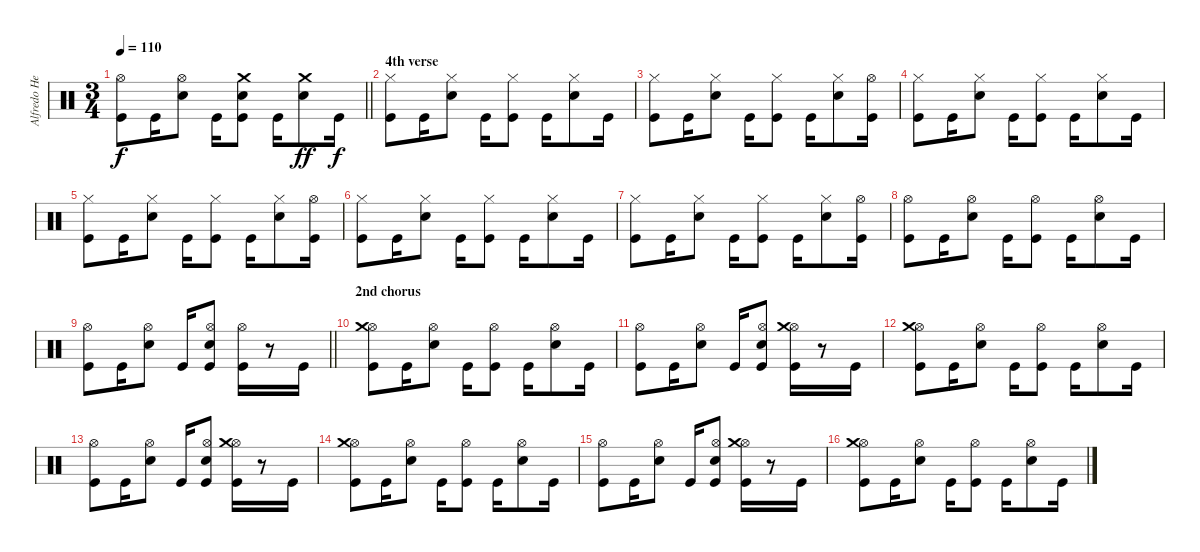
\track ("Alfredo Hernandez" "Alfredo He") {instrument percussion}
\staff {score}
\articulation defaults
\ts (3 4)
\tempo 110
\clef neutral
\barLineRight lightlight
\ks c
("Kick (hit)" "Hi-Hat (open)").8{dy f} "Kick (hit)".16 ("Electric Snare (hit)" "Hi-Hat (open)").8 "Kick (hit)".16 ("Kick (hit)" "Electric Snare (hit)" "Crash medium (hit)").8 "Kick (hit)".16 ("Electric Snare (hit)" "Crash medium (hit)").8{dy ff} "Kick (hit)".16{dy f} |
\section ("" "4th verse")
("Kick (hit)" "Hi-Hat (closed)").8 "Kick (hit)".16 ("Electric Snare (hit)" "Hi-Hat (closed)").8 "Kick (hit)".16 ("Kick (hit)" "Hi-Hat (closed)").8 "Kick (hit)".16 ("Electric Snare (hit)" "Hi-Hat (closed)").8 "Kick (hit)".16 |
("Kick (hit)" "Hi-Hat (closed)").8 "Kick (hit)".16 ("Electric Snare (hit)" "Hi-Hat (closed)").8 "Kick (hit)".16 ("Kick (hit)" "Hi-Hat (closed)").8 "Kick (hit)".16 ("Electric Snare (hit)" "Hi-Hat (closed)").8 ("Kick (hit)" "Hi-Hat (open)").16 |
("Kick (hit)" "Hi-Hat (closed)").8 "Kick (hit)".16 ("Electric Snare (hit)" "Hi-Hat (closed)").8 "Kick (hit)".16 ("Kick (hit)" "Hi-Hat (closed)").8 "Kick (hit)".16 ("Electric Snare (hit)" "Hi-Hat (closed)").8 "Kick (hit)".16 |
("Kick (hit)" "Hi-Hat (closed)").8 "Kick (hit)".16 ("Electric Snare (hit)" "Hi-Hat (closed)").8 "Kick (hit)".16 ("Kick (hit)" "Hi-Hat (closed)").8 "Kick (hit)".16 ("Electric Snare (hit)" "Hi-Hat (closed)").8 ("Kick (hit)" "Hi-Hat (open)").16 |
("Kick (hit)" "Hi-Hat (closed)").8 "Kick (hit)".16 ("Electric Snare (hit)" "Hi-Hat (closed)").8 "Kick (hit)".16 ("Kick (hit)" "Hi-Hat (closed)").8 "Kick (hit)".16 ("Electric Snare (hit)" "Hi-Hat (closed)").8 "Kick (hit)".16 |
("Kick (hit)" "Hi-Hat (closed)").8 "Kick (hit)".16 ("Electric Snare (hit)" "Hi-Hat (closed)").8 "Kick (hit)".16 ("Kick (hit)" "Hi-Hat (closed)").8 "Kick (hit)".16 ("Electric Snare (hit)" "Hi-Hat (closed)").8 ("Kick (hit)" "Hi-Hat (open)").16 |
("Kick (hit)" "Hi-Hat (open)").8 "Kick (hit)".16 ("Electric Snare (hit)" "Hi-Hat (open)").8 "Kick (hit)".16 ("Kick (hit)" "Hi-Hat (open)").8 "Kick (hit)".16 ("Electric Snare (hit)" "Hi-Hat (open)").8 "Kick (hit)".16 |
\barLineRight lightlight
("Kick (hit)" "Hi-Hat (open)").8 "Kick (hit)".16 ("Electric Snare (hit)" "Hi-Hat (open)").8 "Kick (hit)".16 ("Kick (hit)" "Electric Snare (hit)" "Hi-Hat (open)").8 ("Kick (hit)" "Hi-Hat (open)").16 r.8 "Kick (hit)".16 |
\section ("" "2nd chorus")
("Kick (hit)" "Hi-Hat (open)" "Crash medium (hit)").8 "Kick (hit)".16 ("Electric Snare (hit)" "Hi-Hat (open)").8 "Kick (hit)".16 ("Kick (hit)" "Hi-Hat (open)").8 "Kick (hit)".16 ("Electric Snare (hit)" "Hi-Hat (open)").8 "Kick (hit)".16 |
("Kick (hit)" "Hi-Hat (open)").8 "Kick (hit)".16 ("Electric Snare (hit)" "Hi-Hat (open)").8 "Kick (hit)".16 ("Kick (hit)" "Electric Snare (hit)" "Hi-Hat (open)").8 ("Kick (hit)" "Hi-Hat (open)" "Crash medium (hit)").16 r.8 "Kick (hit)".16 |
("Kick (hit)" "Hi-Hat (open)" "Crash medium (hit)").8 "Kick (hit)".16 ("Electric Snare (hit)" "Hi-Hat (open)").8 "Kick (hit)".16 ("Kick (hit)" "Hi-Hat (open)").8 "Kick (hit)".16 ("Electric Snare (hit)" "Hi-Hat (open)").8 "Kick (hit)".16 |
("Kick (hit)" "Hi-Hat (open)").8 "Kick (hit)".16 ("Electric Snare (hit)" "Hi-Hat (open)").8 "Kick (hit)".16 ("Kick (hit)" "Electric Snare (hit)" "Hi-Hat (open)").8 ("Kick (hit)" "Hi-Hat (open)" "Crash medium (hit)").16 r.8 "Kick (hit)".16 |
("Kick (hit)" "Hi-Hat (open)" "Crash medium (hit)").8 "Kick (hit)".16 ("Electric Snare (hit)" "Hi-Hat (open)").8 "Kick (hit)".16 ("Kick (hit)" "Hi-Hat (open)").8 "Kick (hit)".16 ("Electric Snare (hit)" "Hi-Hat (open)").8 "Kick (hit)".16 |
("Kick (hit)" "Hi-Hat (open)").8 "Kick (hit)".16 ("Electric Snare (hit)" "Hi-Hat (open)").8 "Kick (hit)".16 ("Kick (hit)" "Electric Snare (hit)" "Hi-Hat (open)").8 ("Kick (hit)" "Hi-Hat (open)" "Crash medium (hit)").16 r.8 "Kick (hit)".16 |
("Kick (hit)" "Hi-Hat (open)" "Crash medium (hit)").8 "Kick (hit)".16 ("Electric Snare (hit)" "Hi-Hat (open)").8 "Kick (hit)".16 ("Kick (hit)" "Hi-Hat (open)").8 "Kick (hit)".16 ("Electric Snare (hit)" "Hi-Hat (open)").8 "Kick (hit)".16
